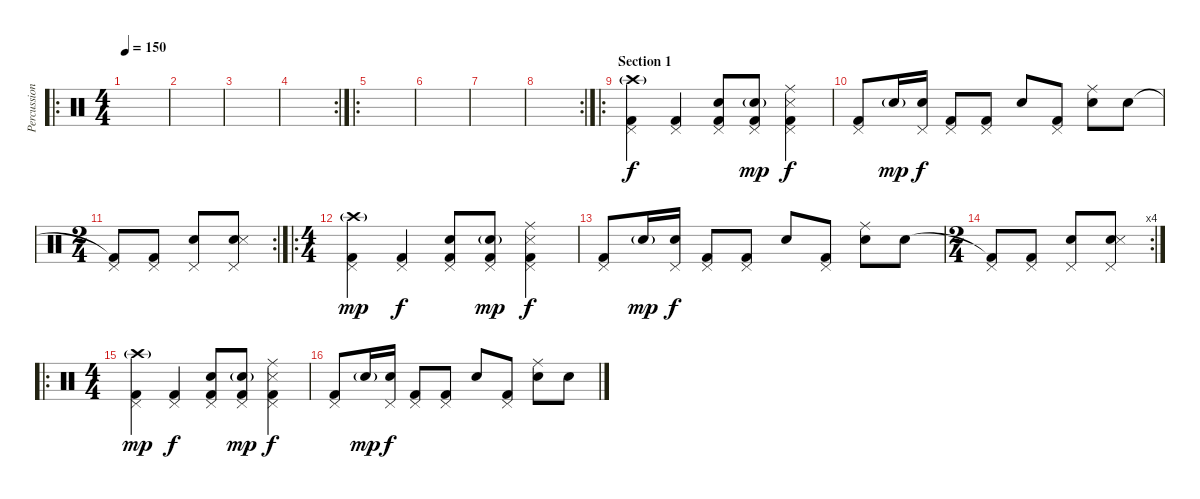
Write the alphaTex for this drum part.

\track ("Percussions" "Percussion") {instrument percussion}
\staff {score}
\articulation defaults
\ro
\ts (4 4)
\tempo 150
\clef neutral
\ks c
|
|
|
\rc 2
|
\ro
|
|
|
\rc 2
|
\ro
\section ("" "Section 1")
("Kick (hit) 2" "Pedal Hi-Hat (hit)" "Crash high (hit)"{g}).4 ("Kick (hit) 2" "Pedal Hi-Hat (hit)").4{dy f} ("Kick (hit) 2" "Pedal Hi-Hat (hit)" "Snare (hit) 2").8 ("Kick (hit) 2" "Pedal Hi-Hat (hit)" "Snare (hit) 2"{g}).8{dy mp} ("Kick (hit) 2" "Pedal Hi-Hat (hit)" "Snare (side stick) 3" "Ride (middle)").4{dy f} |
("Kick (hit) 2" "Pedal Hi-Hat (hit)").8 "Snare (hit) 2"{g}.16{dy mp} ("Pedal Hi-Hat (hit)" "Snare (hit) 2").16{dy f} ("Kick (hit) 2" "Pedal Hi-Hat (hit)").8 ("Kick (hit) 2" "Pedal Hi-Hat (hit)").8 "Snare (hit) 2".8 ("Kick (hit) 2" "Pedal Hi-Hat (hit)").8 ("Snare (hit) 2" "Ride (middle)").8 "Snare (hit) 2".8 |
\rc 2
\ts (2 4)
("Kick (hit) 2"{t} "Pedal Hi-Hat (hit)").8 ("Kick (hit) 2" "Pedal Hi-Hat (hit)").8 ("Pedal Hi-Hat (hit)" "Snare (hit) 2").8 ("Pedal Hi-Hat (hit)" "Snare (hit) 2" "Snare (side stick) 3").8 |
\ro
\ts (4 4)
\section ("" "")
("Kick (hit) 2" "Pedal Hi-Hat (hit)" "Crash high (hit)"{g}).4{dy mp} ("Kick (hit) 2" "Pedal Hi-Hat (hit)").4{dy f} ("Kick (hit) 2" "Pedal Hi-Hat (hit)" "Snare (hit) 2").8 ("Kick (hit) 2" "Pedal Hi-Hat (hit)" "Snare (hit) 2"{g}).8{dy mp} ("Kick (hit) 2" "Pedal Hi-Hat (hit)" "Snare (side stick) 3" "Ride (middle)").4{dy f} |
("Kick (hit) 2" "Pedal Hi-Hat (hit)").8 "Snare (hit) 2"{g}.16{dy mp} ("Pedal Hi-Hat (hit)" "Snare (hit) 2").16{dy f} ("Kick (hit) 2" "Pedal Hi-Hat (hit)").8 ("Kick (hit) 2" "Pedal Hi-Hat (hit)").8 "Snare (hit) 2".8 ("Kick (hit) 2" "Pedal Hi-Hat (hit)").8 ("Snare (hit) 2" "Ride (middle)").8 "Snare (hit) 2".8 |
\rc 4
\ts (2 4)
("Kick (hit) 2"{t} "Pedal Hi-Hat (hit)").8 ("Kick (hit) 2" "Pedal Hi-Hat (hit)").8 ("Pedal Hi-Hat (hit)" "Snare (hit) 2").8 ("Pedal Hi-Hat (hit)" "Snare (hit) 2" "Snare (side stick) 3").8 |
\ro
\ts (4 4)
\section ("" "")
("Kick (hit) 2" "Pedal Hi-Hat (hit)" "Crash high (hit)"{g}).4{dy mp} ("Kick (hit) 2" "Pedal Hi-Hat (hit)").4{dy f} ("Kick (hit) 2" "Pedal Hi-Hat (hit)" "Snare (hit) 2").8 ("Kick (hit) 2" "Pedal Hi-Hat (hit)" "Snare (hit) 2"{g}).8{dy mp} ("Kick (hit) 2" "Pedal Hi-Hat (hit)" "Snare (side stick) 3" "Ride (middle)").4{dy f} |
("Kick (hit) 2" "Pedal Hi-Hat (hit)").8 "Snare (hit) 2"{g}.16{dy mp} ("Pedal Hi-Hat (hit)" "Snare (hit) 2").16{dy f} ("Kick (hit) 2" "Pedal Hi-Hat (hit)").8 ("Kick (hit) 2" "Pedal Hi-Hat (hit)").8 "Snare (hit) 2".8 ("Kick (hit) 2" "Pedal Hi-Hat (hit)").8 ("Snare (hit) 2" "Ride (middle)").8 "Snare (hit) 2".8
